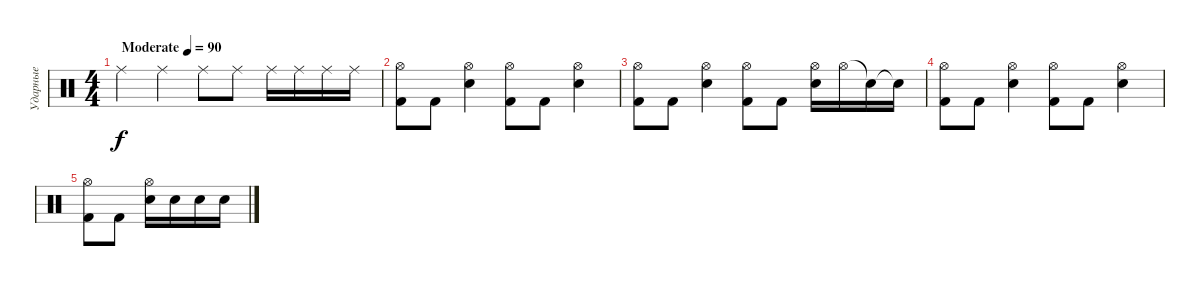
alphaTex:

\track ("Ударные" "Ударные") {instrument percussion}
\staff {score}
\articulation defaults
\ts (4 4)
\tempo (90 "Moderate")
\clef neutral
\ks c "Ride (middle)".4{dy f} "Ride (middle)".4 "Ride (middle)".8 "Ride (middle)".8 "Ride (middle)".16 "Ride (middle)".16 "Ride (middle)".16 "Ride (middle)".16
|
("Kick (hit) 2" "Hi-Hat (open)").8 "Kick (hit) 2".8 ("Snare (hit) 2" "Hi-Hat (open)").4 ("Kick (hit) 2" "Hi-Hat (open)").8 "Kick (hit) 2".8 ("Snare (hit) 2" "Hi-Hat (open)").4 |
("Kick (hit) 2" "Hi-Hat (open)").8 "Kick (hit) 2".8 ("Snare (hit) 2" "Hi-Hat (open)").4 ("Kick (hit) 2" "Hi-Hat (open)").8 "Kick (hit) 2".8 ("Snare (hit) 2" "Hi-Hat (open)").16 "Hi-Hat (open)".16 "Snare (hit)"{t}.16 "Snare (hit)"{t}.16 |
("Kick (hit) 2" "Hi-Hat (open)").8 "Kick (hit) 2".8 ("Snare (hit) 2" "Hi-Hat (open)").4 ("Kick (hit) 2" "Hi-Hat (open)").8 "Kick (hit) 2".8 ("Snare (hit) 2" "Hi-Hat (open)").4 |
("Kick (hit) 2" "Hi-Hat (open)").8 "Kick (hit) 2".8 ("Snare (hit) 2" "Hi-Hat (open)").16 "Snare (hit) 2".16 "Snare (hit) 2".16 "Snare (hit) 2".16
